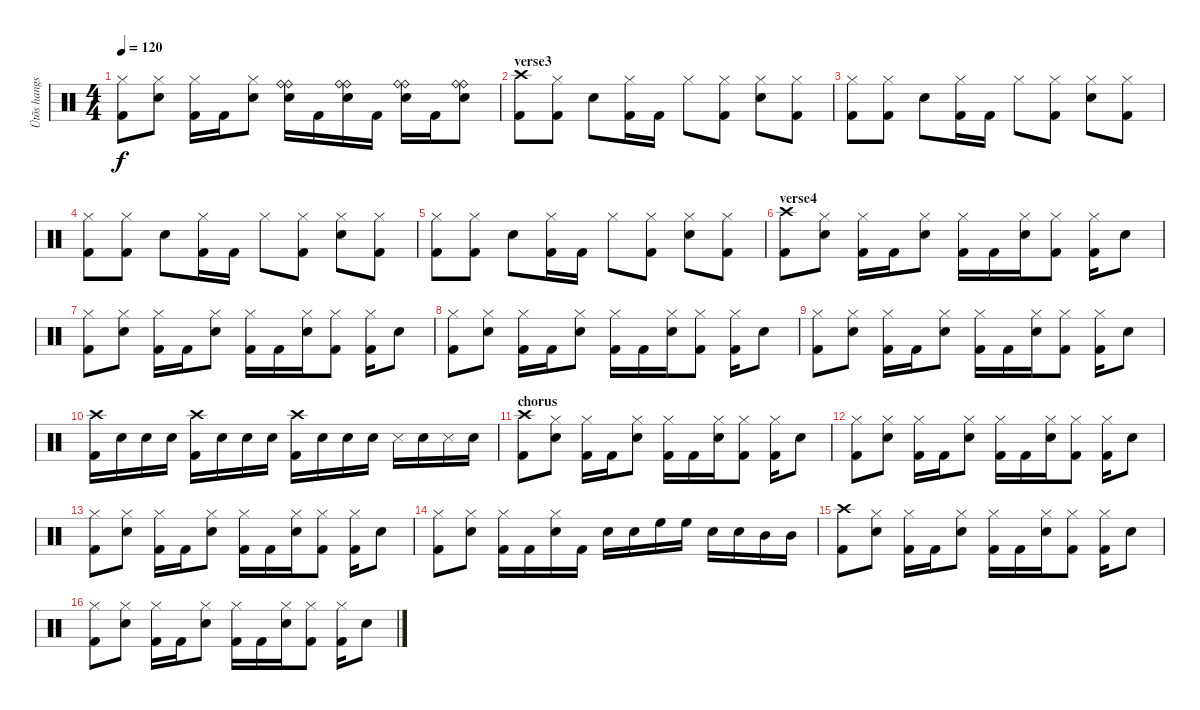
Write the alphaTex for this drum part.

\track ("Ütõs hangszer" "Ütõs hangs") {instrument percussion}
\staff {score}
\articulation defaults
\ts (4 4)
\tempo 120
\clef neutral
\ks c
("Hi-Hat (closed)" "Kick (hit) 2").8{dy f} ("Hi-Hat (closed)" "Snare (hit) 2").8 ("Hi-Hat (closed)" "Kick (hit) 2").16 "Kick (hit) 2".16 ("Hi-Hat (closed)" "Snare (hit) 2").8 ("Ride (bell)" "Ride (bell)" "Snare (hit) 2").16 "Kick (hit) 2".16 ("Ride (bell)" "Ride (bell)" "Snare (hit) 2").16 "Kick (hit) 2".16 ("Ride (bell)" "Ride (bell)" "Snare (hit) 2").16 "Kick (hit) 2".16 ("Ride (bell)" "Ride (bell)" "Snare (hit) 2").8 |
\section ("" "verse3")
("Crash high (hit)" "Kick (hit) 2").8 ("Hi-Hat (closed)" "Kick (hit) 2").8 "Snare (hit) 2".8 ("Hi-Hat (closed)" "Kick (hit) 2").16 "Kick (hit) 2".16 "Hi-Hat (closed)".8 ("Hi-Hat (closed)" "Kick (hit) 2").8 ("Hi-Hat (closed)" "Snare (hit) 2").8 ("Hi-Hat (closed)" "Kick (hit) 2").8 |
("Hi-Hat (closed)" "Kick (hit) 2").8 ("Hi-Hat (closed)" "Kick (hit) 2").8 "Snare (hit) 2".8 ("Hi-Hat (closed)" "Kick (hit) 2").16 "Kick (hit) 2".16 "Hi-Hat (closed)".8 ("Hi-Hat (closed)" "Kick (hit) 2").8 ("Hi-Hat (closed)" "Snare (hit) 2").8 ("Hi-Hat (closed)" "Kick (hit) 2").8 |
("Hi-Hat (closed)" "Kick (hit) 2").8 ("Hi-Hat (closed)" "Kick (hit) 2").8 "Snare (hit) 2".8 ("Hi-Hat (closed)" "Kick (hit) 2").16 "Kick (hit) 2".16 "Hi-Hat (closed)".8 ("Hi-Hat (closed)" "Kick (hit) 2").8 ("Hi-Hat (closed)" "Snare (hit) 2").8 ("Hi-Hat (closed)" "Kick (hit) 2").8 |
("Hi-Hat (closed)" "Kick (hit) 2").8 ("Hi-Hat (closed)" "Kick (hit) 2").8 "Snare (hit) 2".8 ("Hi-Hat (closed)" "Kick (hit) 2").16 "Kick (hit) 2".16 "Hi-Hat (closed)".8 ("Hi-Hat (closed)" "Kick (hit) 2").8 ("Hi-Hat (closed)" "Snare (hit) 2").8 ("Hi-Hat (closed)" "Kick (hit) 2").8 |
\section ("" "verse4")
("Crash high (hit)" "Kick (hit) 2").8 ("Hi-Hat (closed)" "Snare (hit) 2").8 ("Hi-Hat (closed)" "Kick (hit) 2").16 "Kick (hit) 2".16 ("Hi-Hat (closed)" "Snare (hit) 2").8 ("Hi-Hat (closed)" "Kick (hit) 2").16 "Kick (hit) 2".16 ("Hi-Hat (closed)" "Snare (hit) 2").16 ("Hi-Hat (closed)" "Kick (hit) 2").8 ("Hi-Hat (closed)" "Kick (hit) 2").16 "Snare (hit) 2".8 |
("Hi-Hat (closed)" "Kick (hit) 2").8 ("Hi-Hat (closed)" "Snare (hit) 2").8 ("Hi-Hat (closed)" "Kick (hit) 2").16 "Kick (hit) 2".16 ("Hi-Hat (closed)" "Snare (hit) 2").8 ("Hi-Hat (closed)" "Kick (hit) 2").16 "Kick (hit) 2".16 ("Hi-Hat (closed)" "Snare (hit) 2").16 ("Hi-Hat (closed)" "Kick (hit) 2").8 ("Hi-Hat (closed)" "Kick (hit) 2").16 "Snare (hit) 2".8 |
("Hi-Hat (closed)" "Kick (hit) 2").8 ("Hi-Hat (closed)" "Snare (hit) 2").8 ("Hi-Hat (closed)" "Kick (hit) 2").16 "Kick (hit) 2".16 ("Hi-Hat (closed)" "Snare (hit) 2").8 ("Hi-Hat (closed)" "Kick (hit) 2").16 "Kick (hit) 2".16 ("Hi-Hat (closed)" "Snare (hit) 2").16 ("Hi-Hat (closed)" "Kick (hit) 2").8 ("Hi-Hat (closed)" "Kick (hit) 2").16 "Snare (hit) 2".8 |
("Hi-Hat (closed)" "Kick (hit) 2").8 ("Hi-Hat (closed)" "Snare (hit) 2").8 ("Hi-Hat (closed)" "Kick (hit) 2").16 "Kick (hit) 2".16 ("Hi-Hat (closed)" "Snare (hit) 2").8 ("Hi-Hat (closed)" "Kick (hit) 2").16 "Kick (hit) 2".16 ("Hi-Hat (closed)" "Snare (hit) 2").16 ("Hi-Hat (closed)" "Kick (hit) 2").8 ("Hi-Hat (closed)" "Kick (hit) 2").16 "Snare (hit) 2".8 |
("Crash high (hit)" "Kick (hit) 2").16 "Snare (hit) 2".16 "Snare (hit) 2".16 "Snare (hit) 2".16 ("Crash high (hit)" "Kick (hit) 2").16 "Snare (hit) 2".16 "Snare (hit) 2".16 "Snare (hit) 2".16 ("Crash high (hit)" "Kick (hit) 2").16 "Snare (hit) 2".16 "Snare (hit) 2".16 "Snare (hit) 2".16 "Snare (side stick) 3".16 "Snare (hit) 2".16 "Snare (side stick) 3".16 "Snare (hit) 2".16 |
\section ("" "chorus")
("Crash high (hit)" "Kick (hit) 2").8 ("Hi-Hat (closed)" "Snare (hit) 2").8 ("Hi-Hat (closed)" "Kick (hit) 2").16 "Kick (hit) 2".16 ("Hi-Hat (closed)" "Snare (hit) 2").8 ("Hi-Hat (closed)" "Kick (hit) 2").16 "Kick (hit) 2".16 ("Hi-Hat (closed)" "Snare (hit) 2").16 ("Hi-Hat (closed)" "Kick (hit) 2").8 ("Hi-Hat (closed)" "Kick (hit) 2").16 "Snare (hit) 2".8 |
("Hi-Hat (closed)" "Kick (hit) 2").8 ("Hi-Hat (closed)" "Snare (hit) 2").8 ("Hi-Hat (closed)" "Kick (hit) 2").16 "Kick (hit) 2".16 ("Hi-Hat (closed)" "Snare (hit) 2").8 ("Hi-Hat (closed)" "Kick (hit) 2").16 "Kick (hit) 2".16 ("Hi-Hat (closed)" "Snare (hit) 2").16 ("Hi-Hat (closed)" "Kick (hit) 2").8 ("Hi-Hat (closed)" "Kick (hit) 2").16 "Snare (hit) 2".8 |
("Hi-Hat (closed)" "Kick (hit) 2").8 ("Hi-Hat (closed)" "Snare (hit) 2").8 ("Hi-Hat (closed)" "Kick (hit) 2").16 "Kick (hit) 2".16 ("Hi-Hat (closed)" "Snare (hit) 2").8 ("Hi-Hat (closed)" "Kick (hit) 2").16 "Kick (hit) 2".16 ("Hi-Hat (closed)" "Snare (hit) 2").16 ("Hi-Hat (closed)" "Kick (hit) 2").8 ("Hi-Hat (closed)" "Kick (hit) 2").16 "Snare (hit) 2".8 |
("Hi-Hat (closed)" "Kick (hit) 2").8 ("Hi-Hat (closed)" "Snare (hit) 2").8 ("Hi-Hat (closed)" "Kick (hit) 2").16 "Kick (hit) 2".16 ("Hi-Hat (closed)" "Snare (hit) 2").16 "Kick (hit) 2".16 "Snare (hit) 2".16 "Snare (hit) 2".16 "High Floor Tom (hit)".16 "High Floor Tom (hit)".16 "Snare (hit) 2".16 "Snare (hit) 2".16 "Mid Tom (hit)".16 "Mid Tom (hit)".16 |
("Crash high (hit)" "Kick (hit) 2").8 ("Hi-Hat (closed)" "Snare (hit) 2").8 ("Hi-Hat (closed)" "Kick (hit) 2").16 "Kick (hit) 2".16 ("Hi-Hat (closed)" "Snare (hit) 2").8 ("Hi-Hat (closed)" "Kick (hit) 2").16 "Kick (hit) 2".16 ("Hi-Hat (closed)" "Snare (hit) 2").16 ("Hi-Hat (closed)" "Kick (hit) 2").8 ("Hi-Hat (closed)" "Kick (hit) 2").16 "Snare (hit) 2".8 |
("Hi-Hat (closed)" "Kick (hit) 2").8 ("Hi-Hat (closed)" "Snare (hit) 2").8 ("Hi-Hat (closed)" "Kick (hit) 2").16 "Kick (hit) 2".16 ("Hi-Hat (closed)" "Snare (hit) 2").8 ("Hi-Hat (closed)" "Kick (hit) 2").16 "Kick (hit) 2".16 ("Hi-Hat (closed)" "Snare (hit) 2").16 ("Hi-Hat (closed)" "Kick (hit) 2").8 ("Hi-Hat (closed)" "Kick (hit) 2").16 "Snare (hit) 2".8
